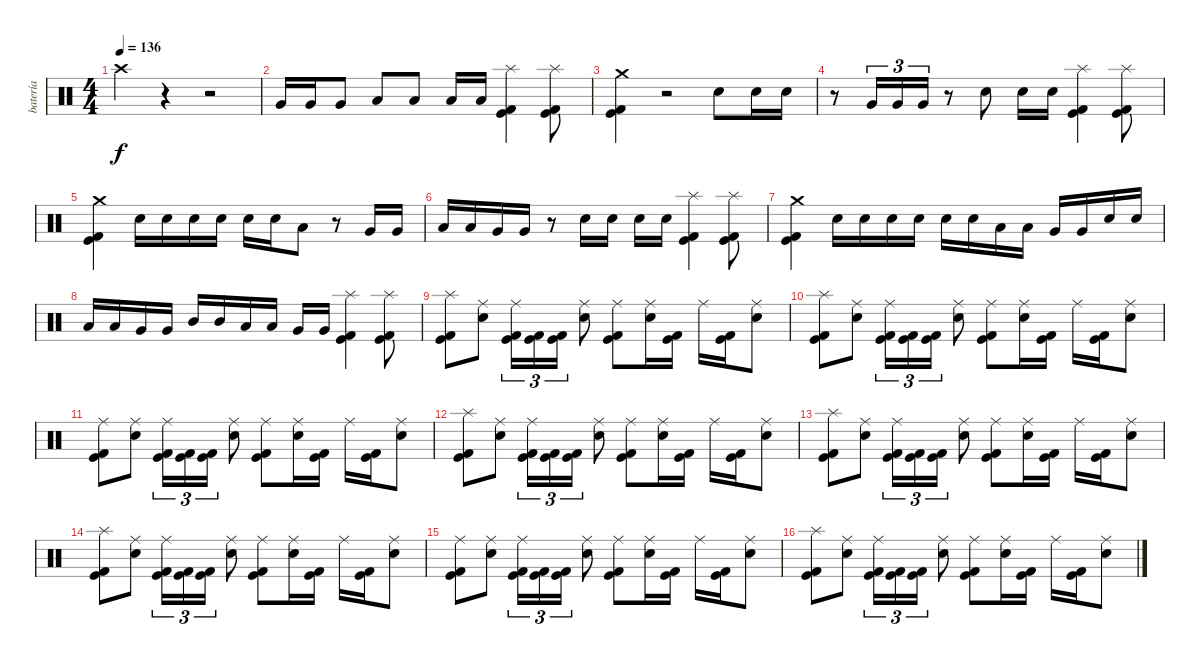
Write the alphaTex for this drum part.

\track ("batería" "batería") {instrument percussion}
\staff {score}
\articulation defaults
\ts (4 4)
\tempo 136
\clef neutral
\ks c "Crash high (hit)".4{dy f}
r.4 r.2 |
"Very Low Tom (hit)".16 "Very Low Tom (hit)".16 "Very Low Tom (hit)".8 "Low Tom (hit)".8 "Low Tom (hit)".8 "Low Tom (hit)".16 "Low Tom (hit)".16 ("Splash (hit)" "Kick (hit) 2" "Kick (hit)").4 ("Splash (hit)" "Kick (hit) 2" "Kick (hit)").8 |
("Crash medium (hit)" "Kick (hit) 2" "Kick (hit)").4 r.2 "Snare (hit) 2".8 "Snare (hit) 2".16 "Snare (hit) 2".16 |
r.8 "Very Low Tom (hit)".16{tu (3 2)} "Very Low Tom (hit)".16{tu (3 2)} "Very Low Tom (hit)".16{tu (3 2)} r.8 "Snare (hit) 2".8 "Snare (hit) 2".16 "Snare (hit) 2".16 ("Splash (hit)" "Kick (hit) 2" "Kick (hit)").4 ("Splash (hit)" "Kick (hit) 2" "Kick (hit)").8 |
("Crash medium (hit)" "Kick (hit) 2" "Kick (hit)").4 "Snare (hit) 2".16 "Snare (hit) 2".16 "Snare (hit) 2".16 "Snare (hit) 2".16 "Snare (hit) 2".16 "Snare (hit) 2".16 "Low Tom (hit)".8 r.8 "Very Low Tom (hit)".16 "Very Low Tom (hit)".16 |
"Low Tom (hit)".16 "Low Tom (hit)".16 "Very Low Tom (hit)".16 "Very Low Tom (hit)".16 r.8 "Snare (hit) 2".16 "Snare (hit) 2".16 "Snare (hit) 2".16 "Snare (hit) 2".16 ("Splash (hit)" "Kick (hit) 2" "Kick (hit)").4 ("Splash (hit)" "Kick (hit) 2" "Kick (hit)").8 |
("Crash medium (hit)" "Kick (hit) 2" "Kick (hit)").4 "Snare (hit) 2".16 "Snare (hit) 2".16 "Snare (hit) 2".16 "Snare (hit) 2".16 "Snare (hit) 2".16 "Snare (hit) 2".16 "Low Tom (hit)".16 "Low Tom (hit)".16 "Very Low Tom (hit)".16 "Very Low Tom (hit)".16 "Snare (hit) 2".16 "Snare (hit) 2".16 |
"Low Tom (hit)".16 "Low Tom (hit)".16 "Very Low Tom (hit)".16 "Very Low Tom (hit)".16 "Mid Tom (hit)".16 "Mid Tom (hit)".16 "Low Tom (hit)".16 "Low Tom (hit)".16 "Very Low Tom (hit)".16 "Very Low Tom (hit)".16 ("Splash (hit)" "Kick (hit) 2" "Kick (hit)").4 ("Splash (hit)" "Kick (hit) 2" "Kick (hit)").8 |
("Kick (hit) 2" "Splash (hit)" "Kick (hit)").8 ("Snare (hit) 2" "Ride (middle)").8 ("Kick (hit) 2" "Ride (middle)" "Kick (hit)").16{tu (3 2)} ("Kick (hit) 2" "Kick (hit)").16{tu (3 2)} ("Kick (hit) 2" "Kick (hit)").16{tu (3 2)} ("Snare (hit) 2" "Ride (middle)").8 ("Kick (hit) 2" "Ride (middle)" "Kick (hit)").8 ("Snare (hit) 2" "Ride (middle)").16 ("Kick (hit) 2" "Kick (hit)").16 "Ride (middle)".16 ("Kick (hit) 2" "Kick (hit)").16 ("Snare (hit) 2" "Ride (middle)").8 |
("Kick (hit) 2" "Splash (hit)" "Kick (hit)").8 ("Snare (hit) 2" "Ride (middle)").8 ("Kick (hit) 2" "Ride (middle)" "Kick (hit)").16{tu (3 2)} ("Kick (hit) 2" "Kick (hit)").16{tu (3 2)} ("Kick (hit) 2" "Kick (hit)").16{tu (3 2)} ("Snare (hit) 2" "Ride (middle)").8 ("Kick (hit) 2" "Ride (middle)" "Kick (hit)").8 ("Snare (hit) 2" "Ride (middle)").16 ("Kick (hit) 2" "Kick (hit)").16 "Ride (middle)".16 ("Kick (hit) 2" "Kick (hit)").16 ("Snare (hit) 2" "Ride (middle)").8 |
("Kick (hit) 2" "Ride (middle)" "Kick (hit)").8 ("Snare (hit) 2" "Ride (middle)").8 ("Kick (hit) 2" "Ride (middle)" "Kick (hit)").16{tu (3 2)} ("Kick (hit) 2" "Kick (hit)").16{tu (3 2)} ("Kick (hit) 2" "Kick (hit)").16{tu (3 2)} ("Snare (hit) 2" "Ride (middle)").8 ("Kick (hit) 2" "Ride (middle)" "Kick (hit)").8 ("Snare (hit) 2" "Ride (middle)").16 ("Kick (hit) 2" "Kick (hit)").16 "Ride (middle)".16 ("Kick (hit) 2" "Kick (hit)").16 ("Snare (hit) 2" "Ride (middle)").8 |
("Kick (hit) 2" "Splash (hit)" "Kick (hit)").8 ("Snare (hit) 2" "Ride (middle)").8 ("Kick (hit) 2" "Ride (middle)" "Kick (hit)").16{tu (3 2)} ("Kick (hit) 2" "Kick (hit)").16{tu (3 2)} ("Kick (hit) 2" "Kick (hit)").16{tu (3 2)} ("Snare (hit) 2" "Ride (middle)").8 ("Kick (hit) 2" "Ride (middle)" "Kick (hit)").8 ("Snare (hit) 2" "Ride (middle)").16 ("Kick (hit) 2" "Kick (hit)").16 "Ride (middle)".16 ("Kick (hit) 2" "Kick (hit)").16 ("Snare (hit) 2" "Ride (middle)").8 |
("Kick (hit) 2" "Splash (hit)" "Kick (hit)").8 ("Snare (hit) 2" "Ride (middle)").8 ("Kick (hit) 2" "Ride (middle)" "Kick (hit)").16{tu (3 2)} ("Kick (hit) 2" "Kick (hit)").16{tu (3 2)} ("Kick (hit) 2" "Kick (hit)").16{tu (3 2)} ("Snare (hit) 2" "Ride (middle)").8 ("Kick (hit) 2" "Ride (middle)" "Kick (hit)").8 ("Snare (hit) 2" "Ride (middle)").16 ("Kick (hit) 2" "Kick (hit)").16 "Ride (middle)".16 ("Kick (hit) 2" "Kick (hit)").16 ("Snare (hit) 2" "Ride (middle)").8 |
("Kick (hit) 2" "Splash (hit)" "Kick (hit)").8 ("Snare (hit) 2" "Ride (middle)").8 ("Kick (hit) 2" "Ride (middle)" "Kick (hit)").16{tu (3 2)} ("Kick (hit) 2" "Kick (hit)").16{tu (3 2)} ("Kick (hit) 2" "Kick (hit)").16{tu (3 2)} ("Snare (hit) 2" "Ride (middle)").8 ("Kick (hit) 2" "Ride (middle)" "Kick (hit)").8 ("Snare (hit) 2" "Ride (middle)").16 ("Kick (hit) 2" "Kick (hit)").16 "Ride (middle)".16 ("Kick (hit) 2" "Kick (hit)").16 ("Snare (hit) 2" "Ride (middle)").8 |
("Kick (hit) 2" "Ride (middle)" "Kick (hit)").8 ("Snare (hit) 2" "Ride (middle)").8 ("Kick (hit) 2" "Ride (middle)" "Kick (hit)").16{tu (3 2)} ("Kick (hit) 2" "Kick (hit)").16{tu (3 2)} ("Kick (hit) 2" "Kick (hit)").16{tu (3 2)} ("Snare (hit) 2" "Ride (middle)").8 ("Kick (hit) 2" "Ride (middle)" "Kick (hit)").8 ("Snare (hit) 2" "Ride (middle)").16 ("Kick (hit) 2" "Kick (hit)").16 "Ride (middle)".16 ("Kick (hit) 2" "Kick (hit)").16 ("Snare (hit) 2" "Ride (middle)").8 |
("Kick (hit) 2" "Splash (hit)" "Kick (hit)").8 ("Snare (hit) 2" "Ride (middle)").8 ("Kick (hit) 2" "Ride (middle)" "Kick (hit)").16{tu (3 2)} ("Kick (hit) 2" "Kick (hit)").16{tu (3 2)} ("Kick (hit) 2" "Kick (hit)").16{tu (3 2)} ("Snare (hit) 2" "Ride (middle)").8 ("Kick (hit) 2" "Ride (middle)" "Kick (hit)").8 ("Snare (hit) 2" "Ride (middle)").16 ("Kick (hit) 2" "Kick (hit)").16 "Ride (middle)".16 ("Kick (hit) 2" "Kick (hit)").16 ("Snare (hit) 2" "Ride (middle)").8
